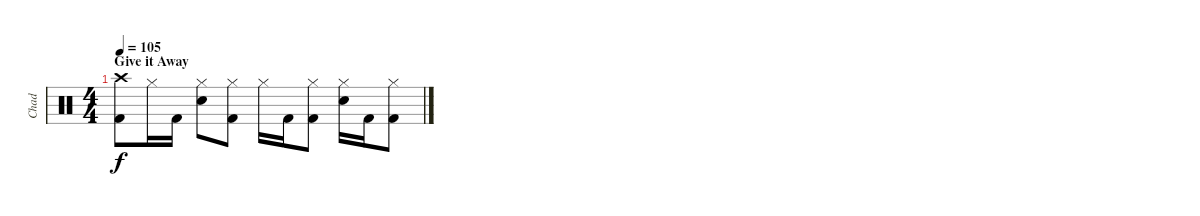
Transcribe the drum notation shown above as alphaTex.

\track ("Chad" "Chad") {instrument percussion}
\staff {score}
\articulation defaults
\ts (4 4)
\section ("" "Give it Away")
\tempo 105
\clef neutral
\ks c
("Crash high (hit)" "Kick (hit) 2").8{dy f} "Hi-Hat (closed)".16 "Kick (hit) 2".16 ("Hi-Hat (closed)" "Electric Snare (hit)").8 ("Hi-Hat (closed)" "Kick (hit) 2").8 "Hi-Hat (closed)".16 "Kick (hit) 2".16 ("Hi-Hat (closed)" "Kick (hit) 2").8 ("Hi-Hat (closed)" "Electric Snare (hit)").16 "Kick (hit) 2".16 ("Hi-Hat (closed)" "Kick (hit) 2").8
